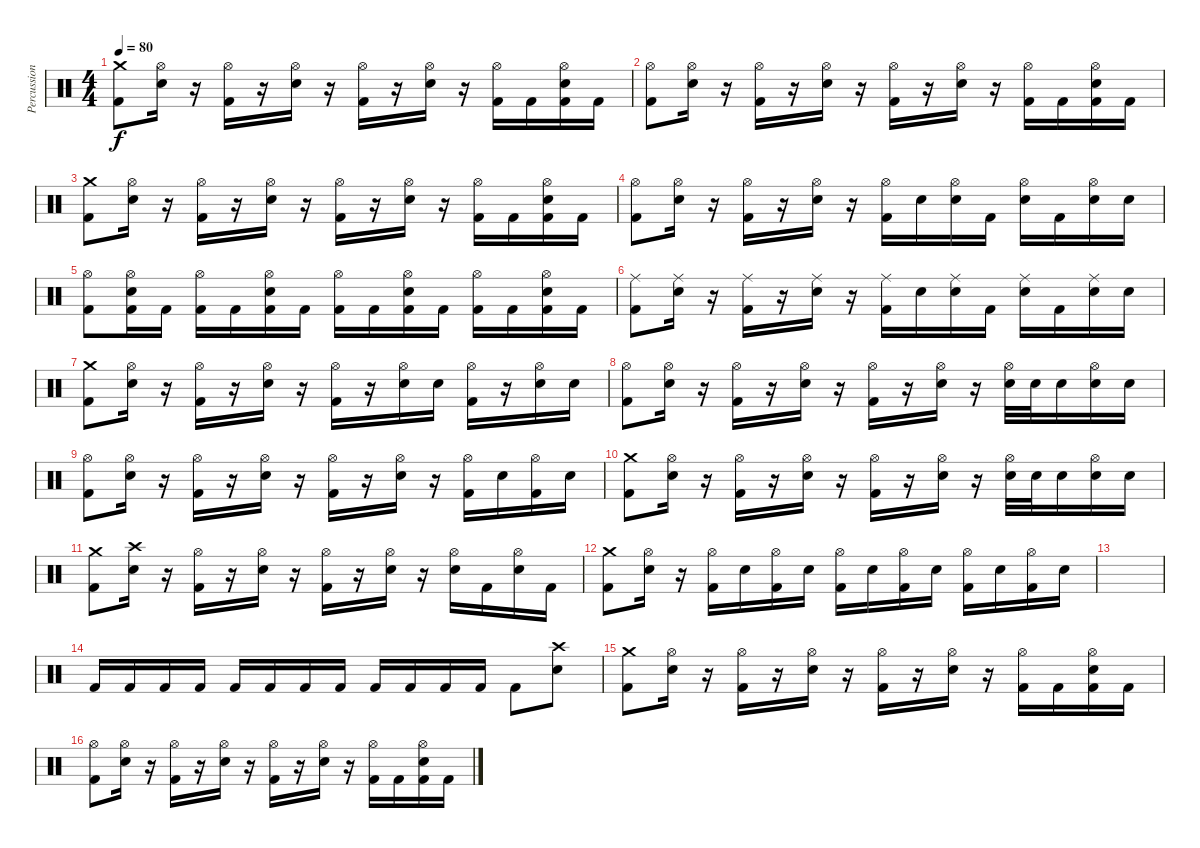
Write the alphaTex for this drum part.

\track ("Percussion" "Percussion") {instrument percussion}
\staff {score}
\articulation defaults
\ts (4 4)
\tempo 80
\clef neutral
\ks c
("Crash medium (hit)" "Kick (hit) 2").8{dy f} ("Hi-Hat (open)" "Electric Snare (hit)").16 r.16 ("Hi-Hat (open)" "Kick (hit) 2").16 r.16 ("Hi-Hat (open)" "Electric Snare (hit)").16 r.16 ("Hi-Hat (open)" "Kick (hit) 2").16 r.16 ("Hi-Hat (open)" "Electric Snare (hit)").16 r.16 ("Hi-Hat (open)" "Kick (hit) 2").16 "Kick (hit) 2".16 ("Hi-Hat (open)" "Electric Snare (hit)" "Kick (hit) 2").16 "Kick (hit) 2".16 |
("Hi-Hat (open)" "Kick (hit) 2").8 ("Hi-Hat (open)" "Electric Snare (hit)").16 r.16 ("Hi-Hat (open)" "Kick (hit) 2").16 r.16 ("Hi-Hat (open)" "Electric Snare (hit)").16 r.16 ("Hi-Hat (open)" "Kick (hit) 2").16 r.16 ("Hi-Hat (open)" "Electric Snare (hit)").16 r.16 ("Hi-Hat (open)" "Kick (hit) 2").16 "Kick (hit) 2".16 ("Hi-Hat (open)" "Electric Snare (hit)" "Kick (hit) 2").16 "Kick (hit) 2".16 |
("Crash medium (hit)" "Kick (hit) 2").8 ("Hi-Hat (open)" "Electric Snare (hit)").16 r.16 ("Hi-Hat (open)" "Kick (hit) 2").16 r.16 ("Hi-Hat (open)" "Electric Snare (hit)").16 r.16 ("Hi-Hat (open)" "Kick (hit) 2").16 r.16 ("Hi-Hat (open)" "Electric Snare (hit)").16 r.16 ("Hi-Hat (open)" "Kick (hit) 2").16 "Kick (hit) 2".16 ("Hi-Hat (open)" "Electric Snare (hit)" "Kick (hit) 2").16 "Kick (hit) 2".16 |
("Hi-Hat (open)" "Kick (hit) 2").8 ("Hi-Hat (open)" "Electric Snare (hit)").16 r.16 ("Hi-Hat (open)" "Kick (hit) 2").16 r.16 ("Hi-Hat (open)" "Electric Snare (hit)").16 r.16 ("Hi-Hat (open)" "Kick (hit) 2").16 "Electric Snare (hit)".16 ("Hi-Hat (open)" "Electric Snare (hit)").16 "Kick (hit) 2".16 ("Hi-Hat (open)" "Electric Snare (hit)").16 "Kick (hit) 2".16 ("Hi-Hat (open)" "Electric Snare (hit)").16 "Electric Snare (hit)".16 |
("Hi-Hat (open)" "Kick (hit) 2").8 ("Hi-Hat (open)" "Electric Snare (hit)" "Kick (hit) 2").16 "Kick (hit) 2".16 ("Hi-Hat (open)" "Kick (hit) 2").16 "Kick (hit) 2".16 ("Hi-Hat (open)" "Electric Snare (hit)" "Kick (hit) 2").16 "Kick (hit) 2".16 ("Hi-Hat (open)" "Kick (hit) 2").16 "Kick (hit) 2".16 ("Hi-Hat (open)" "Electric Snare (hit)" "Kick (hit) 2").16 "Kick (hit) 2".16 ("Hi-Hat (open)" "Kick (hit) 2").16 "Kick (hit) 2".16 ("Hi-Hat (open)" "Electric Snare (hit)" "Kick (hit) 2").16 "Kick (hit) 2".16 |
("Ride (middle)" "Kick (hit) 2").8 ("Ride (middle)" "Electric Snare (hit)").16 r.16 ("Ride (middle)" "Kick (hit) 2").16 r.16 ("Ride (middle)" "Electric Snare (hit)").16 r.16 ("Ride (middle)" "Kick (hit) 2").16 "Electric Snare (hit)".16 ("Ride (middle)" "Electric Snare (hit)").16 "Kick (hit) 2".16 ("Ride (middle)" "Electric Snare (hit)").16 "Kick (hit) 2".16 ("Ride (middle)" "Electric Snare (hit)").16 "Electric Snare (hit)".16 |
("Crash medium (hit)" "Kick (hit) 2").8 ("Hi-Hat (open)" "Electric Snare (hit)").16 r.16 ("Hi-Hat (open)" "Kick (hit) 2").16 r.16 ("Hi-Hat (open)" "Electric Snare (hit)").16 r.16 ("Hi-Hat (open)" "Kick (hit) 2").16 r.16 ("Hi-Hat (open)" "Electric Snare (hit)").16 "Electric Snare (hit)".16 ("Hi-Hat (open)" "Kick (hit) 2").16 r.16 ("Hi-Hat (open)" "Electric Snare (hit)").16 "Electric Snare (hit)".16 |
("Hi-Hat (open)" "Kick (hit) 2").8 ("Hi-Hat (open)" "Electric Snare (hit)").16 r.16 ("Hi-Hat (open)" "Kick (hit) 2").16 r.16 ("Hi-Hat (open)" "Electric Snare (hit)").16 r.16 ("Hi-Hat (open)" "Kick (hit) 2").16 r.16 ("Hi-Hat (open)" "Electric Snare (hit)").16 r.16 ("Hi-Hat (open)" "Electric Snare (hit)").32 "Electric Snare (hit)".32 "Electric Snare (hit)".16 ("Hi-Hat (open)" "Electric Snare (hit)").16 "Electric Snare (hit)".16 |
("Hi-Hat (open)" "Kick (hit) 2").8 ("Hi-Hat (open)" "Electric Snare (hit)").16 r.16 ("Hi-Hat (open)" "Kick (hit) 2").16 r.16 ("Hi-Hat (open)" "Electric Snare (hit)").16 r.16 ("Hi-Hat (open)" "Kick (hit) 2").16 r.16 ("Hi-Hat (open)" "Electric Snare (hit)").16 r.16 ("Hi-Hat (open)" "Kick (hit) 2").16 "Electric Snare (hit)".16 ("Hi-Hat (open)" "Kick (hit) 2").16 "Electric Snare (hit)".16 |
("Crash medium (hit)" "Kick (hit) 2").8 ("Hi-Hat (open)" "Electric Snare (hit)").16 r.16 ("Hi-Hat (open)" "Kick (hit) 2").16 r.16 ("Hi-Hat (open)" "Electric Snare (hit)").16 r.16 ("Hi-Hat (open)" "Kick (hit) 2").16 r.16 ("Hi-Hat (open)" "Electric Snare (hit)").16 r.16 ("Hi-Hat (open)" "Electric Snare (hit)").32 "Electric Snare (hit)".32 "Electric Snare (hit)".16 ("Hi-Hat (open)" "Electric Snare (hit)").16 "Electric Snare (hit)".16 |
("Crash medium (hit)" "Kick (hit) 2").8 ("Crash high (hit)" "Electric Snare (hit)").16 r.16 ("Hi-Hat (open)" "Kick (hit) 2").16 r.16 ("Hi-Hat (open)" "Electric Snare (hit)").16 r.16 ("Hi-Hat (open)" "Kick (hit) 2").16 r.16 ("Hi-Hat (open)" "Electric Snare (hit)").16 r.16 ("Hi-Hat (open)" "Electric Snare (hit)").16 "Kick (hit) 2".16 ("Hi-Hat (open)" "Electric Snare (hit)").16 "Kick (hit) 2".16 |
("Crash medium (hit)" "Kick (hit) 2").8 ("Hi-Hat (open)" "Electric Snare (hit)").16 r.16 ("Hi-Hat (open)" "Kick (hit) 2").16 "Electric Snare (hit)".16 ("Hi-Hat (open)" "Kick (hit) 2").16 "Electric Snare (hit)".16 ("Hi-Hat (open)" "Kick (hit) 2").16 "Electric Snare (hit)".16 ("Hi-Hat (open)" "Kick (hit) 2").16 "Electric Snare (hit)".16 ("Hi-Hat (open)" "Kick (hit) 2").16 "Electric Snare (hit)".16 ("Hi-Hat (open)" "Kick (hit) 2").16 "Electric Snare (hit)".16 |
|
"Kick (hit) 2".16 "Kick (hit) 2".16 "Kick (hit) 2".16 "Kick (hit) 2".16 "Kick (hit) 2".16 "Kick (hit) 2".16 "Kick (hit) 2".16 "Kick (hit) 2".16 "Kick (hit) 2".16 "Kick (hit) 2".16 "Kick (hit) 2".16 "Kick (hit) 2".16 "Kick (hit) 2".8 ("Crash high (hit)" "Electric Snare (hit)").8 |
("Crash medium (hit)" "Kick (hit) 2").8 ("Hi-Hat (open)" "Electric Snare (hit)").16 r.16 ("Hi-Hat (open)" "Kick (hit) 2").16 r.16 ("Hi-Hat (open)" "Electric Snare (hit)").16 r.16 ("Hi-Hat (open)" "Kick (hit) 2").16 r.16 ("Hi-Hat (open)" "Electric Snare (hit)").16 r.16 ("Hi-Hat (open)" "Kick (hit) 2").16 "Kick (hit) 2".16 ("Hi-Hat (open)" "Electric Snare (hit)" "Kick (hit) 2").16 "Kick (hit) 2".16 |
("Hi-Hat (open)" "Kick (hit) 2").8 ("Hi-Hat (open)" "Electric Snare (hit)").16 r.16 ("Hi-Hat (open)" "Kick (hit) 2").16 r.16 ("Hi-Hat (open)" "Electric Snare (hit)").16 r.16 ("Hi-Hat (open)" "Kick (hit) 2").16 r.16 ("Hi-Hat (open)" "Electric Snare (hit)").16 r.16 ("Hi-Hat (open)" "Kick (hit) 2").16 "Kick (hit) 2".16 ("Hi-Hat (open)" "Electric Snare (hit)" "Kick (hit) 2").16 "Kick (hit) 2".16
